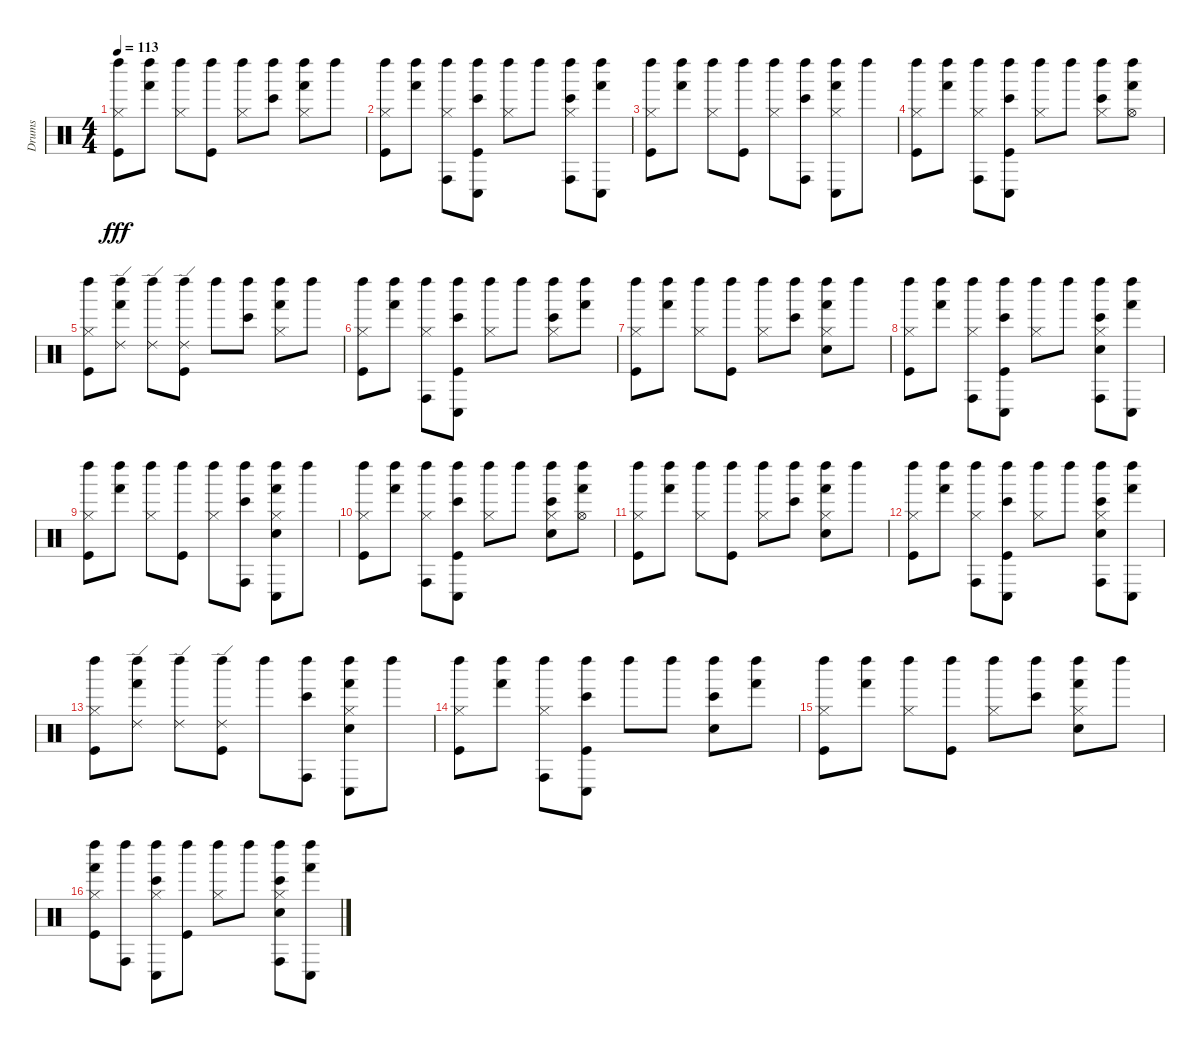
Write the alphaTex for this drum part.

\track ("Drums" "Drums") {instrument percussion}
\staff {score}
\articulation defaults
\ts (4 4)
\tempo 113
\clef neutral
\ks c
("Hi-Hat (closed)" "Left Maraca (hit)" "Kick (hit)").8{dy fff} ("Left Maraca (hit)" "Hand (hit)").8 ("Hi-Hat (closed)" "Left Maraca (hit)").8 ("Left Maraca (hit)" "Kick (hit)").8 ("Hi-Hat (closed)" "Left Maraca (hit)").8 ("Left Maraca (hit)" "Bongo High (hit)").8 ("Hi-Hat (closed)" "Left Maraca (hit)" "Hand (hit)").8 "Left Maraca (hit)".8 |
("Hi-Hat (closed)" "Left Maraca (hit)" "Kick (hit)").8 ("Left Maraca (hit)" "Hand (hit)").8 ("Hi-Hat (closed)" "Left Maraca (hit)" "Conga high (hit)").8 ("Left Maraca (hit)" "Conga low (hit)" "Bongo High (hit)" "Kick (hit)").8 ("Hi-Hat (closed)" "Left Maraca (hit)").8 "Left Maraca (hit)".8 ("Hi-Hat (closed)" "Left Maraca (hit)" "Conga high (hit)" "Bongo High (hit)").8 ("Left Maraca (hit)" "Conga low (hit)" "Hand (hit)").8 |
("Hi-Hat (closed)" "Left Maraca (hit)" "Kick (hit)").8 ("Left Maraca (hit)" "Hand (hit)").8 ("Hi-Hat (closed)" "Left Maraca (hit)").8 ("Left Maraca (hit)" "Kick (hit)").8 ("Hi-Hat (closed)" "Left Maraca (hit)").8 ("Left Maraca (hit)" "Conga high (hit)" "Bongo High (hit)").8 ("Hi-Hat (closed)" "Left Maraca (hit)" "Conga low (hit)" "Hand (hit)").8 "Left Maraca (hit)".8 |
("Hi-Hat (closed)" "Left Maraca (hit)" "Kick (hit)").8 ("Left Maraca (hit)" "Hand (hit)").8 ("Hi-Hat (closed)" "Left Maraca (hit)" "Conga high (hit)").8 ("Left Maraca (hit)" "Conga low (hit)" "Bongo High (hit)" "Kick (hit)").8 ("Hi-Hat (closed)" "Left Maraca (hit)").8 "Left Maraca (hit)".8 ("Hi-Hat (closed)" "Left Maraca (hit)" "Bongo High (hit)").8 ("Hi-Hat (open)" "Left Maraca (hit)" "Hand (hit)").8 |
("Hi-Hat (closed)" "Left Maraca (hit)" "Kick (hit)").8 ("Ride (edge) 2" "Left Maraca (hit)" "Hand (hit)").8 ("Ride (edge) 2" "Left Maraca (hit)").8 ("Ride (edge) 2" "Left Maraca (hit)" "Kick (hit)").8 "Left Maraca (hit)".8 ("Left Maraca (hit)" "Bongo High (hit)").8 ("Hi-Hat (closed)" "Left Maraca (hit)" "Hand (hit)").8 "Left Maraca (hit)".8 |
("Hi-Hat (closed)" "Left Maraca (hit)" "Kick (hit)").8 ("Left Maraca (hit)" "Hand (hit)").8 ("Hi-Hat (closed)" "Left Maraca (hit)" "Conga high (hit)").8 ("Left Maraca (hit)" "Conga low (hit)" "Bongo High (hit)" "Kick (hit)").8 ("Hi-Hat (closed)" "Left Maraca (hit)").8 "Left Maraca (hit)".8 ("Hi-Hat (closed)" "Left Maraca (hit)" "Bongo High (hit)").8 ("Left Maraca (hit)" "Hand (hit)").8 |
("Hi-Hat (closed)" "Left Maraca (hit)" "Kick (hit)").8 ("Left Maraca (hit)" "Hand (hit)").8 ("Hi-Hat (closed)" "Left Maraca (hit)").8 ("Left Maraca (hit)" "Kick (hit)").8 ("Hi-Hat (closed)" "Left Maraca (hit)").8 ("Left Maraca (hit)" "Bongo High (hit)").8 ("Hi-Hat (closed)" "Left Maraca (hit)" "Hand (hit)" "Snare (hit) 2").8 "Left Maraca (hit)".8 |
("Hi-Hat (closed)" "Left Maraca (hit)" "Kick (hit)").8 ("Left Maraca (hit)" "Hand (hit)").8 ("Hi-Hat (closed)" "Left Maraca (hit)" "Conga high (hit)").8 ("Left Maraca (hit)" "Conga low (hit)" "Bongo High (hit)" "Kick (hit)").8 ("Hi-Hat (closed)" "Left Maraca (hit)").8 "Left Maraca (hit)".8 ("Hi-Hat (closed)" "Left Maraca (hit)" "Conga high (hit)" "Bongo High (hit)" "Snare (hit) 2").8 ("Left Maraca (hit)" "Conga low (hit)" "Hand (hit)").8 |
("Hi-Hat (closed)" "Left Maraca (hit)" "Kick (hit)").8 ("Left Maraca (hit)" "Hand (hit)").8 ("Hi-Hat (closed)" "Left Maraca (hit)").8 ("Left Maraca (hit)" "Kick (hit)").8 ("Hi-Hat (closed)" "Left Maraca (hit)").8 ("Left Maraca (hit)" "Conga high (hit)" "Bongo High (hit)").8 ("Hi-Hat (closed)" "Left Maraca (hit)" "Conga low (hit)" "Hand (hit)" "Snare (hit) 2").8 "Left Maraca (hit)".8 |
("Hi-Hat (closed)" "Left Maraca (hit)" "Kick (hit)").8 ("Left Maraca (hit)" "Hand (hit)").8 ("Hi-Hat (closed)" "Left Maraca (hit)" "Conga high (hit)").8 ("Left Maraca (hit)" "Conga low (hit)" "Bongo High (hit)" "Kick (hit)").8 ("Hi-Hat (closed)" "Left Maraca (hit)").8 "Left Maraca (hit)".8 ("Hi-Hat (closed)" "Left Maraca (hit)" "Bongo High (hit)" "Snare (hit) 2").8 ("Hi-Hat (open)" "Left Maraca (hit)" "Hand (hit)").8 |
("Hi-Hat (closed)" "Left Maraca (hit)" "Kick (hit)").8 ("Left Maraca (hit)" "Hand (hit)").8 ("Hi-Hat (closed)" "Left Maraca (hit)").8 ("Left Maraca (hit)" "Kick (hit)").8 ("Hi-Hat (closed)" "Left Maraca (hit)").8 ("Left Maraca (hit)" "Bongo High (hit)").8 ("Hi-Hat (closed)" "Left Maraca (hit)" "Hand (hit)" "Snare (hit) 2").8 "Left Maraca (hit)".8 |
("Hi-Hat (closed)" "Left Maraca (hit)" "Kick (hit)").8 ("Left Maraca (hit)" "Hand (hit)").8 ("Hi-Hat (closed)" "Left Maraca (hit)" "Conga high (hit)").8 ("Left Maraca (hit)" "Conga low (hit)" "Bongo High (hit)" "Kick (hit)").8 ("Hi-Hat (closed)" "Left Maraca (hit)").8 "Left Maraca (hit)".8 ("Hi-Hat (closed)" "Left Maraca (hit)" "Conga high (hit)" "Bongo High (hit)" "Snare (hit) 2").8 ("Left Maraca (hit)" "Conga low (hit)" "Hand (hit)").8 |
("Hi-Hat (closed)" "Left Maraca (hit)" "Kick (hit)").8 ("Ride (edge) 2" "Left Maraca (hit)" "Hand (hit)").8 ("Ride (edge) 2" "Left Maraca (hit)").8 ("Ride (edge) 2" "Left Maraca (hit)" "Kick (hit)").8 "Left Maraca (hit)".8 ("Left Maraca (hit)" "Conga high (hit)" "Bongo High (hit)").8 ("Hi-Hat (closed)" "Left Maraca (hit)" "Conga low (hit)" "Hand (hit)" "Snare (hit) 2").8 "Left Maraca (hit)".8 |
("Hi-Hat (closed)" "Left Maraca (hit)" "Kick (hit)").8 ("Left Maraca (hit)" "Hand (hit)").8 ("Hi-Hat (closed)" "Left Maraca (hit)" "Conga high (hit)").8 ("Left Maraca (hit)" "Conga low (hit)" "Bongo High (hit)" "Kick (hit)").8 "Left Maraca (hit)".8 "Left Maraca (hit)".8 ("Left Maraca (hit)" "Bongo High (hit)" "Snare (hit) 2").8 ("Left Maraca (hit)" "Hand (hit)").8 |
("Hi-Hat (closed)" "Left Maraca (hit)" "Kick (hit)").8 ("Left Maraca (hit)" "Hand (hit)").8 ("Hi-Hat (closed)" "Left Maraca (hit)").8 ("Left Maraca (hit)" "Kick (hit)").8 ("Hi-Hat (closed)" "Left Maraca (hit)").8 ("Left Maraca (hit)" "Bongo High (hit)").8 ("Hi-Hat (closed)" "Left Maraca (hit)" "Hand (hit)" "Snare (hit) 2").8 "Left Maraca (hit)".8 |
("Hi-Hat (closed)" "Left Maraca (hit)" "Hand (hit)" "Kick (hit)").8 ("Left Maraca (hit)" "Conga high (hit)").8 ("Hi-Hat (closed)" "Left Maraca (hit)" "Conga low (hit)" "Bongo High (hit)").8 ("Left Maraca (hit)" "Kick (hit)").8 ("Hi-Hat (closed)" "Left Maraca (hit)").8 "Left Maraca (hit)".8 ("Hi-Hat (closed)" "Left Maraca (hit)" "Conga high (hit)" "Bongo High (hit)" "Snare (hit) 2").8 ("Left Maraca (hit)" "Conga low (hit)" "Hand (hit)").8
